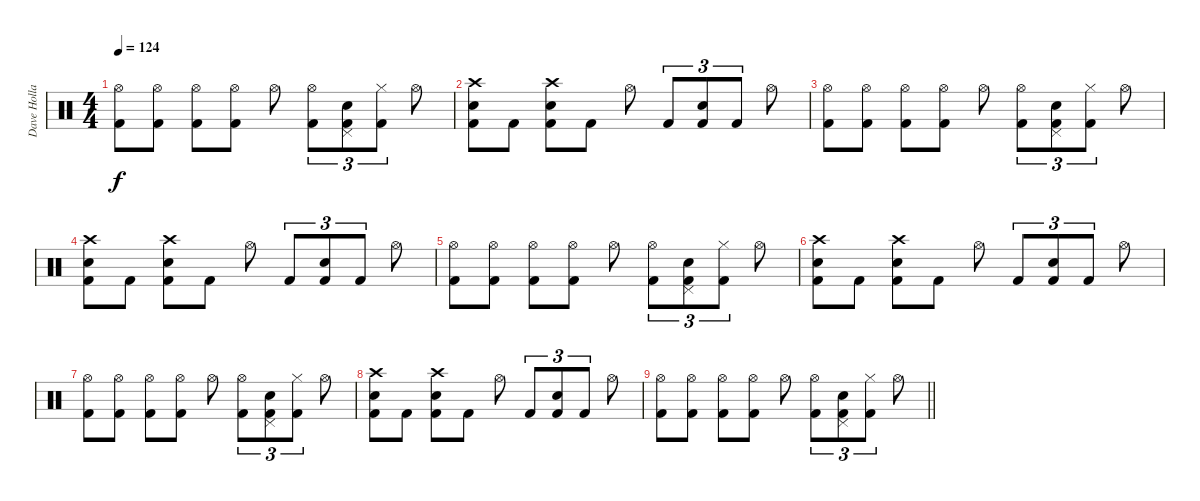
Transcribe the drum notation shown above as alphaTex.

\track ("Dave Holland" "Dave Holla") {instrument percussion}
\staff {score}
\articulation defaults
\ts (4 4)
\tempo 124
\clef neutral
\ks c
("Hi-Hat (open)" "Kick (hit) 2").8{dy f} ("Hi-Hat (open)" "Kick (hit) 2").8 ("Hi-Hat (open)" "Kick (hit) 2").8 ("Hi-Hat (open)" "Kick (hit) 2").8 "Hi-Hat (open)".8 ("Hi-Hat (open)" "Kick (hit) 2").8{tu (3 2)} ("Pedal Hi-Hat (hit)" "Snare (hit) 2" "Kick (hit) 2").8{tu (3 2)} ("Hi-Hat (closed)" "Kick (hit) 2").8{tu (3 2)} "Hi-Hat (open)".8 |
("Crash high (hit)" "Snare (hit) 2" "Kick (hit) 2").8 "Kick (hit) 2".8 ("Crash high (hit)" "Snare (hit) 2" "Kick (hit) 2").8 "Kick (hit) 2".8 "Hi-Hat (open)".8 "Kick (hit) 2".8{tu (3 2)} ("Snare (hit) 2" "Kick (hit) 2").8{tu (3 2)} "Kick (hit) 2".8{tu (3 2)} "Hi-Hat (open)".8 |
("Hi-Hat (open)" "Kick (hit) 2").8 ("Hi-Hat (open)" "Kick (hit) 2").8 ("Hi-Hat (open)" "Kick (hit) 2").8 ("Hi-Hat (open)" "Kick (hit) 2").8 "Hi-Hat (open)".8 ("Hi-Hat (open)" "Kick (hit) 2").8{tu (3 2)} ("Pedal Hi-Hat (hit)" "Snare (hit) 2" "Kick (hit) 2").8{tu (3 2)} ("Hi-Hat (closed)" "Kick (hit) 2").8{tu (3 2)} "Hi-Hat (open)".8 |
("Crash high (hit)" "Snare (hit) 2" "Kick (hit) 2").8 "Kick (hit) 2".8 ("Crash high (hit)" "Snare (hit) 2" "Kick (hit) 2").8 "Kick (hit) 2".8 "Hi-Hat (open)".8 "Kick (hit) 2".8{tu (3 2)} ("Snare (hit) 2" "Kick (hit) 2").8{tu (3 2)} "Kick (hit) 2".8{tu (3 2)} "Hi-Hat (open)".8 |
("Hi-Hat (open)" "Kick (hit) 2").8 ("Hi-Hat (open)" "Kick (hit) 2").8 ("Hi-Hat (open)" "Kick (hit) 2").8 ("Hi-Hat (open)" "Kick (hit) 2").8 "Hi-Hat (open)".8 ("Hi-Hat (open)" "Kick (hit) 2").8{tu (3 2)} ("Pedal Hi-Hat (hit)" "Snare (hit) 2" "Kick (hit) 2").8{tu (3 2)} ("Hi-Hat (closed)" "Kick (hit) 2").8{tu (3 2)} "Hi-Hat (open)".8 |
("Crash high (hit)" "Snare (hit) 2" "Kick (hit) 2").8 "Kick (hit) 2".8 ("Crash high (hit)" "Snare (hit) 2" "Kick (hit) 2").8 "Kick (hit) 2".8 "Hi-Hat (open)".8 "Kick (hit) 2".8{tu (3 2)} ("Snare (hit) 2" "Kick (hit) 2").8{tu (3 2)} "Kick (hit) 2".8{tu (3 2)} "Hi-Hat (open)".8 |
("Hi-Hat (open)" "Kick (hit) 2").8 ("Hi-Hat (open)" "Kick (hit) 2").8 ("Hi-Hat (open)" "Kick (hit) 2").8 ("Hi-Hat (open)" "Kick (hit) 2").8 "Hi-Hat (open)".8 ("Hi-Hat (open)" "Kick (hit) 2").8{tu (3 2)} ("Pedal Hi-Hat (hit)" "Snare (hit) 2" "Kick (hit) 2").8{tu (3 2)} ("Hi-Hat (closed)" "Kick (hit) 2").8{tu (3 2)} "Hi-Hat (open)".8 |
("Crash high (hit)" "Snare (hit) 2" "Kick (hit) 2").8 "Kick (hit) 2".8 ("Crash high (hit)" "Snare (hit) 2" "Kick (hit) 2").8 "Kick (hit) 2".8 "Hi-Hat (open)".8 "Kick (hit) 2".8{tu (3 2)} ("Snare (hit) 2" "Kick (hit) 2").8{tu (3 2)} "Kick (hit) 2".8{tu (3 2)} "Hi-Hat (open)".8 |
\barLineRight lightlight
("Hi-Hat (open)" "Kick (hit) 2").8 ("Hi-Hat (open)" "Kick (hit) 2").8 ("Hi-Hat (open)" "Kick (hit) 2").8 ("Hi-Hat (open)" "Kick (hit) 2").8 "Hi-Hat (open)".8 ("Hi-Hat (open)" "Kick (hit) 2").8{tu (3 2)} ("Pedal Hi-Hat (hit)" "Snare (hit) 2" "Kick (hit) 2").8{tu (3 2)} ("Hi-Hat (closed)" "Kick (hit) 2").8{tu (3 2)} "Hi-Hat (open)".8
